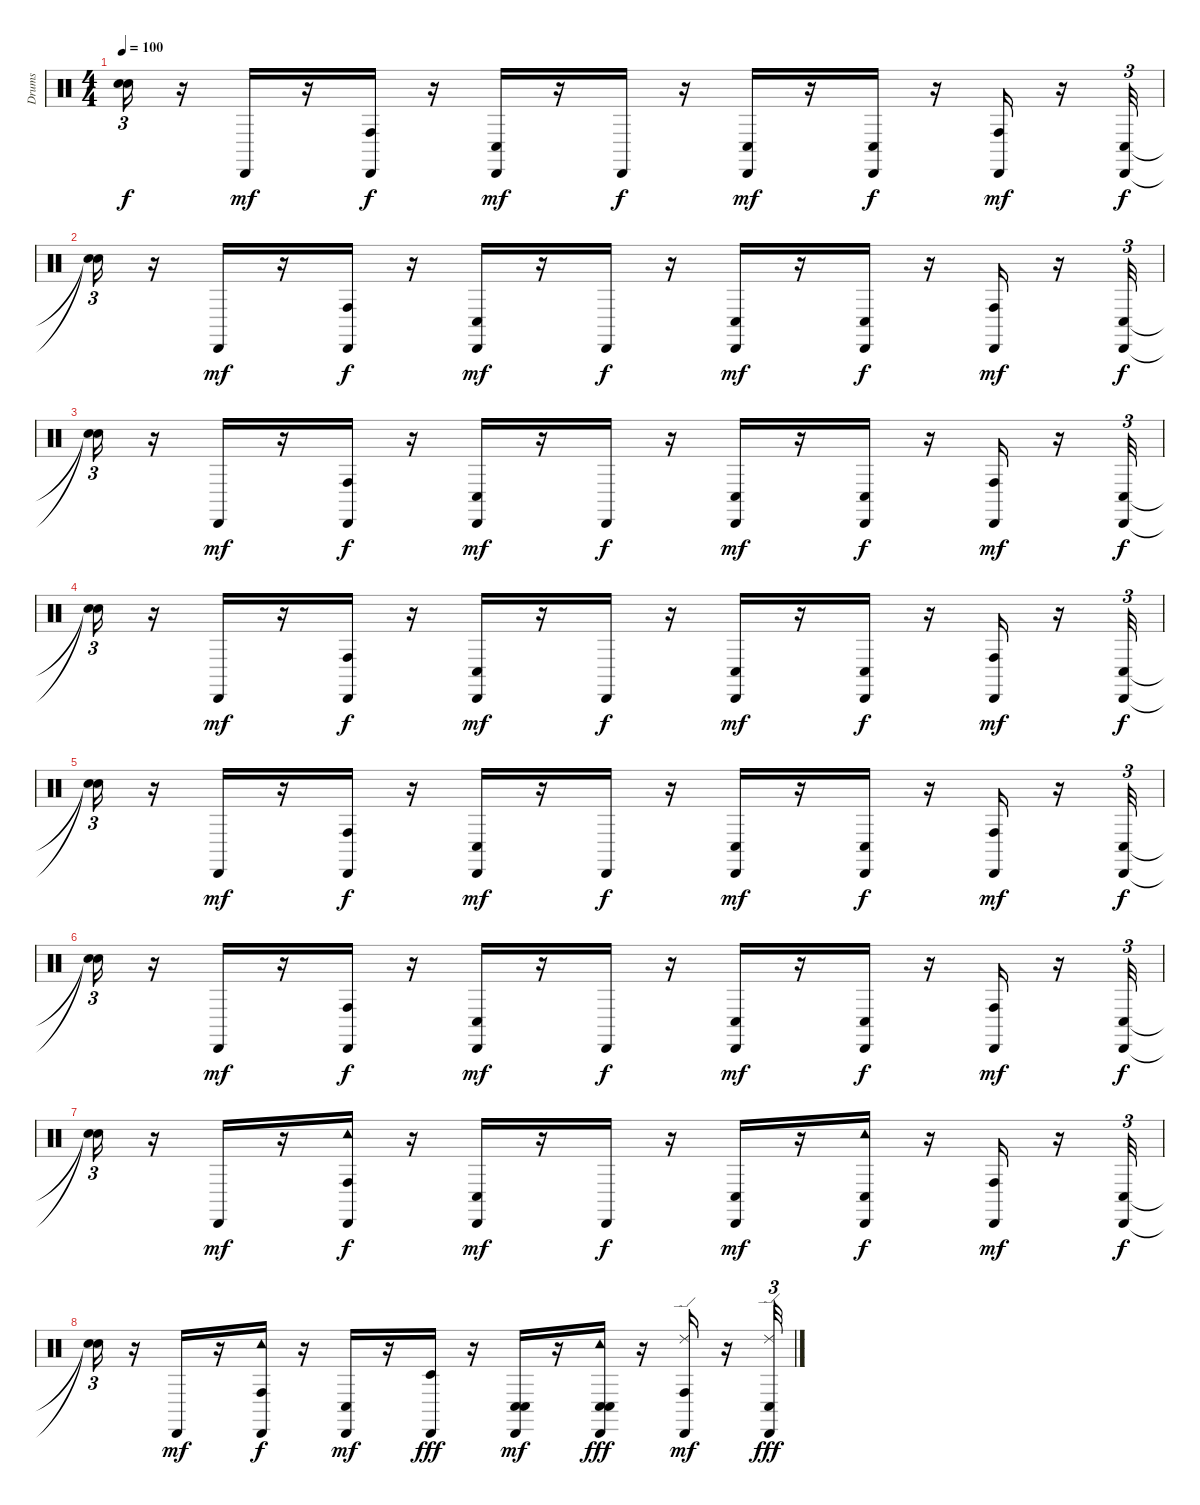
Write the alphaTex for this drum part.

\track ("Drums" "Drums") {instrument percussion}
\staff {score}
\articulation defaults
\ts (4 4)
\tempo 100
\clef neutral
\ks c
("Snare (hit)"{t} "Snare (hit)"{t}).16{tu (3 2) dy f} r.16 "Cabasa (hit)".16{dy mf} r.16 ("Conga high (hit)" "Cabasa (hit)").16{dy f} r.16 ("Conga low (hit)" "Cabasa (hit)").16{dy mf} r.16 "Cabasa (hit)".16{dy f} r.16 ("Conga low (hit)" "Cabasa (hit)").16{dy mf} r.16 ("Conga low (hit)" "Cabasa (hit)").16{dy f} r.16 ("Conga high (hit)" "Cabasa (hit)").16{dy mf} r.16 ("Conga low (hit)" "Cabasa (hit)").32{tu (3 2) dy f} |
("Snare (hit)"{t} "Snare (hit)"{t}).16{tu (3 2)} r.16 "Cabasa (hit)".16{dy mf} r.16 ("Conga high (hit)" "Cabasa (hit)").16{dy f} r.16 ("Conga low (hit)" "Cabasa (hit)").16{dy mf} r.16 "Cabasa (hit)".16{dy f} r.16 ("Conga low (hit)" "Cabasa (hit)").16{dy mf} r.16 ("Conga low (hit)" "Cabasa (hit)").16{dy f} r.16 ("Conga high (hit)" "Cabasa (hit)").16{dy mf} r.16 ("Conga low (hit)" "Cabasa (hit)").32{tu (3 2) dy f} |
("Snare (hit)"{t} "Snare (hit)"{t}).16{tu (3 2)} r.16 "Cabasa (hit)".16{dy mf} r.16 ("Conga high (hit)" "Cabasa (hit)").16{dy f} r.16 ("Conga low (hit)" "Cabasa (hit)").16{dy mf} r.16 "Cabasa (hit)".16{dy f} r.16 ("Conga low (hit)" "Cabasa (hit)").16{dy mf} r.16 ("Conga low (hit)" "Cabasa (hit)").16{dy f} r.16 ("Conga high (hit)" "Cabasa (hit)").16{dy mf} r.16 ("Conga low (hit)" "Cabasa (hit)").32{tu (3 2) dy f} |
("Snare (hit)"{t} "Snare (hit)"{t}).16{tu (3 2)} r.16 "Cabasa (hit)".16{dy mf} r.16 ("Conga high (hit)" "Cabasa (hit)").16{dy f} r.16 ("Conga low (hit)" "Cabasa (hit)").16{dy mf} r.16 "Cabasa (hit)".16{dy f} r.16 ("Conga low (hit)" "Cabasa (hit)").16{dy mf} r.16 ("Conga low (hit)" "Cabasa (hit)").16{dy f} r.16 ("Conga high (hit)" "Cabasa (hit)").16{dy mf} r.16 ("Conga low (hit)" "Cabasa (hit)").32{tu (3 2) dy f} |
("Snare (hit)"{t} "Snare (hit)"{t}).16{tu (3 2)} r.16 "Cabasa (hit)".16{dy mf} r.16 ("Conga high (hit)" "Cabasa (hit)").16{dy f} r.16 ("Conga low (hit)" "Cabasa (hit)").16{dy mf} r.16 "Cabasa (hit)".16{dy f} r.16 ("Conga low (hit)" "Cabasa (hit)").16{dy mf} r.16 ("Conga low (hit)" "Cabasa (hit)").16{dy f} r.16 ("Conga high (hit)" "Cabasa (hit)").16{dy mf} r.16 ("Conga low (hit)" "Cabasa (hit)").32{tu (3 2) dy f} |
("Snare (hit)"{t} "Snare (hit)"{t}).16{tu (3 2)} r.16 "Cabasa (hit)".16{dy mf} r.16 ("Conga high (hit)" "Cabasa (hit)").16{dy f} r.16 ("Conga low (hit)" "Cabasa (hit)").16{dy mf} r.16 "Cabasa (hit)".16{dy f} r.16 ("Conga low (hit)" "Cabasa (hit)").16{dy mf} r.16 ("Conga low (hit)" "Cabasa (hit)").16{dy f} r.16 ("Conga high (hit)" "Cabasa (hit)").16{dy mf} r.16 ("Conga low (hit)" "Cabasa (hit)").32{tu (3 2) dy f} |
("Snare (hit)"{t} "Snare (hit)"{t}).16{tu (3 2)} r.16 "Cabasa (hit)".16{dy mf} r.16 ("Tambourine (hit)" "Conga high (hit)" "Cabasa (hit)").16{dy f} r.16 ("Conga low (hit)" "Cabasa (hit)").16{dy mf} r.16 "Cabasa (hit)".16{dy f} r.16 ("Conga low (hit)" "Cabasa (hit)").16{dy mf} r.16 ("Tambourine (hit)" "Conga low (hit)" "Cabasa (hit)").16{dy f} r.16 ("Conga high (hit)" "Cabasa (hit)").16{dy mf} r.16 ("Conga low (hit)" "Cabasa (hit)").32{tu (3 2) dy f} |
("Snare (hit)"{t} "Snare (hit)"{t}).16{tu (3 2)} r.16 "Cabasa (hit)".16{dy mf} r.16 ("Tambourine (hit)" "Conga high (hit)" "Cabasa (hit)").16{dy f} r.16 ("Conga low (hit)" "Cabasa (hit)").16{dy mf} r.16 ("Timbale low (hit)" "Cabasa (hit)").16{dy fff} r.16 ("Conga low (hit)" "Conga low (hit)" "Cabasa (hit)").16{dy mf} r.16 ("Tambourine (hit)" "Conga low (hit)" "Conga low (hit)" "Cabasa (hit)").16{dy fff} r.16 ("Ride (edge) 2" "Conga high (hit)" "Cabasa (hit)").16{dy mf} r.16 ("Ride (edge) 2" "Conga low (hit)" "Cabasa (hit)").32{tu (3 2) dy fff}
